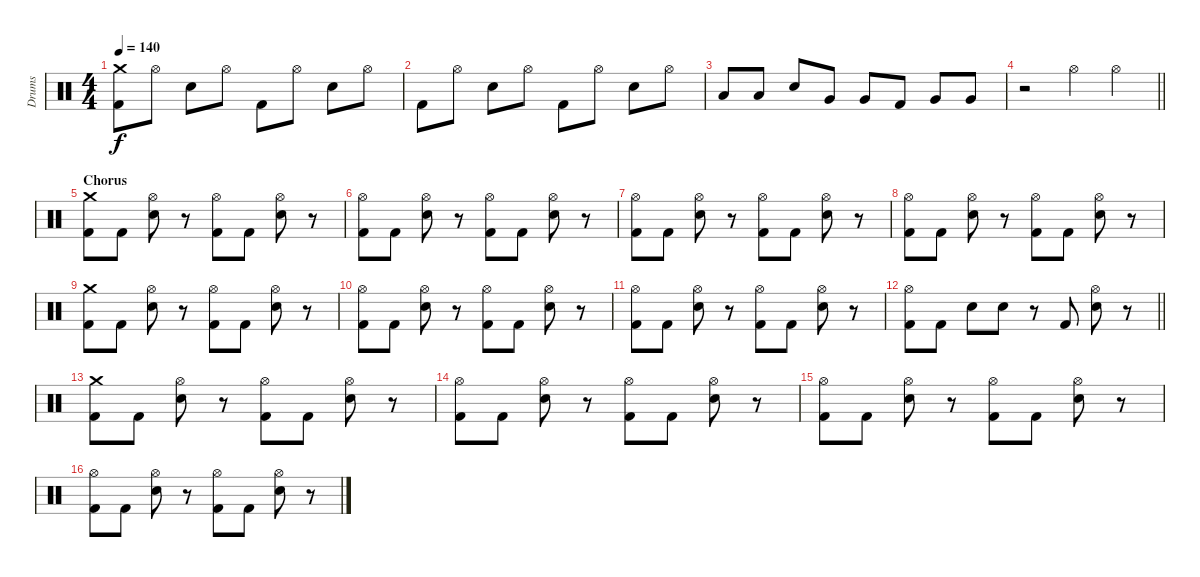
\track ("Drums" "Drums") {instrument percussion}
\staff {score}
\articulation defaults
\ts (4 4)
\tempo 140
\clef neutral
\ks c
("Crash medium (hit)" "Kick (hit) 2").8{dy f} "Hi-Hat (open)".8 "Electric Snare (hit)".8 "Hi-Hat (open)".8 "Kick (hit) 2".8 "Hi-Hat (open)".8 "Electric Snare (hit)".8 "Hi-Hat (open)".8 |
"Kick (hit) 2".8 "Hi-Hat (open)".8 "Electric Snare (hit)".8 "Hi-Hat (open)".8 "Kick (hit) 2".8 "Hi-Hat (open)".8 "Electric Snare (hit)".8 "Hi-Hat (open)".8 |
"Low Tom (hit)".8 "Low Tom (hit)".8 "Electric Snare (hit)".8 "Very Low Tom (hit)".8 "Very Low Tom (hit)".8 "Kick (hit) 2".8 "Very Low Tom (hit)".8 "Very Low Tom (hit)".8 |
\barLineRight lightlight
r.2 "Hi-Hat (open)".4 "Hi-Hat (open)".4 |
\section ("" "Chorus")
("Crash medium (hit)" "Kick (hit) 2").8 "Kick (hit) 2".8 ("Hi-Hat (open)" "Electric Snare (hit)").8 r.8 ("Hi-Hat (open)" "Kick (hit) 2").8 "Kick (hit) 2".8 ("Hi-Hat (open)" "Electric Snare (hit)").8 r.8 |
("Hi-Hat (open)" "Kick (hit) 2").8 "Kick (hit) 2".8 ("Hi-Hat (open)" "Electric Snare (hit)").8 r.8 ("Hi-Hat (open)" "Kick (hit) 2").8 "Kick (hit) 2".8 ("Hi-Hat (open)" "Electric Snare (hit)").8 r.8 |
("Hi-Hat (open)" "Kick (hit) 2").8 "Kick (hit) 2".8 ("Hi-Hat (open)" "Electric Snare (hit)").8 r.8 ("Hi-Hat (open)" "Kick (hit) 2").8 "Kick (hit) 2".8 ("Hi-Hat (open)" "Electric Snare (hit)").8 r.8 |
("Hi-Hat (open)" "Kick (hit) 2").8 "Kick (hit) 2".8 ("Hi-Hat (open)" "Electric Snare (hit)").8 r.8 ("Hi-Hat (open)" "Kick (hit) 2").8 "Kick (hit) 2".8 ("Hi-Hat (open)" "Electric Snare (hit)").8 r.8 |
("Crash medium (hit)" "Kick (hit) 2").8 "Kick (hit) 2".8 ("Hi-Hat (open)" "Electric Snare (hit)").8 r.8 ("Hi-Hat (open)" "Kick (hit) 2").8 "Kick (hit) 2".8 ("Hi-Hat (open)" "Electric Snare (hit)").8 r.8 |
("Hi-Hat (open)" "Kick (hit) 2").8 "Kick (hit) 2".8 ("Hi-Hat (open)" "Electric Snare (hit)").8 r.8 ("Hi-Hat (open)" "Kick (hit) 2").8 "Kick (hit) 2".8 ("Hi-Hat (open)" "Electric Snare (hit)").8 r.8 |
("Hi-Hat (open)" "Kick (hit) 2").8 "Kick (hit) 2".8 ("Hi-Hat (open)" "Electric Snare (hit)").8 r.8 ("Hi-Hat (open)" "Kick (hit) 2").8 "Kick (hit) 2".8 ("Hi-Hat (open)" "Electric Snare (hit)").8 r.8 |
\barLineRight lightlight
("Hi-Hat (open)" "Kick (hit) 2").8 "Kick (hit) 2".8 "Electric Snare (hit)".8 "Electric Snare (hit)".8 r.8 "Kick (hit) 2".8 ("Hi-Hat (open)" "Electric Snare (hit)").8 r.8 |
("Crash medium (hit)" "Kick (hit) 2").8 "Kick (hit) 2".8 ("Hi-Hat (open)" "Electric Snare (hit)").8 r.8 ("Hi-Hat (open)" "Kick (hit) 2").8 "Kick (hit) 2".8 ("Hi-Hat (open)" "Electric Snare (hit)").8 r.8 |
("Hi-Hat (open)" "Kick (hit) 2").8 "Kick (hit) 2".8 ("Hi-Hat (open)" "Electric Snare (hit)").8 r.8 ("Hi-Hat (open)" "Kick (hit) 2").8 "Kick (hit) 2".8 ("Hi-Hat (open)" "Electric Snare (hit)").8 r.8 |
("Hi-Hat (open)" "Kick (hit) 2").8 "Kick (hit) 2".8 ("Hi-Hat (open)" "Electric Snare (hit)").8 r.8 ("Hi-Hat (open)" "Kick (hit) 2").8 "Kick (hit) 2".8 ("Hi-Hat (open)" "Electric Snare (hit)").8 r.8 |
("Hi-Hat (open)" "Kick (hit) 2").8 "Kick (hit) 2".8 ("Hi-Hat (open)" "Electric Snare (hit)").8 r.8 ("Hi-Hat (open)" "Kick (hit) 2").8 "Kick (hit) 2".8 ("Hi-Hat (open)" "Electric Snare (hit)").8 r.8
